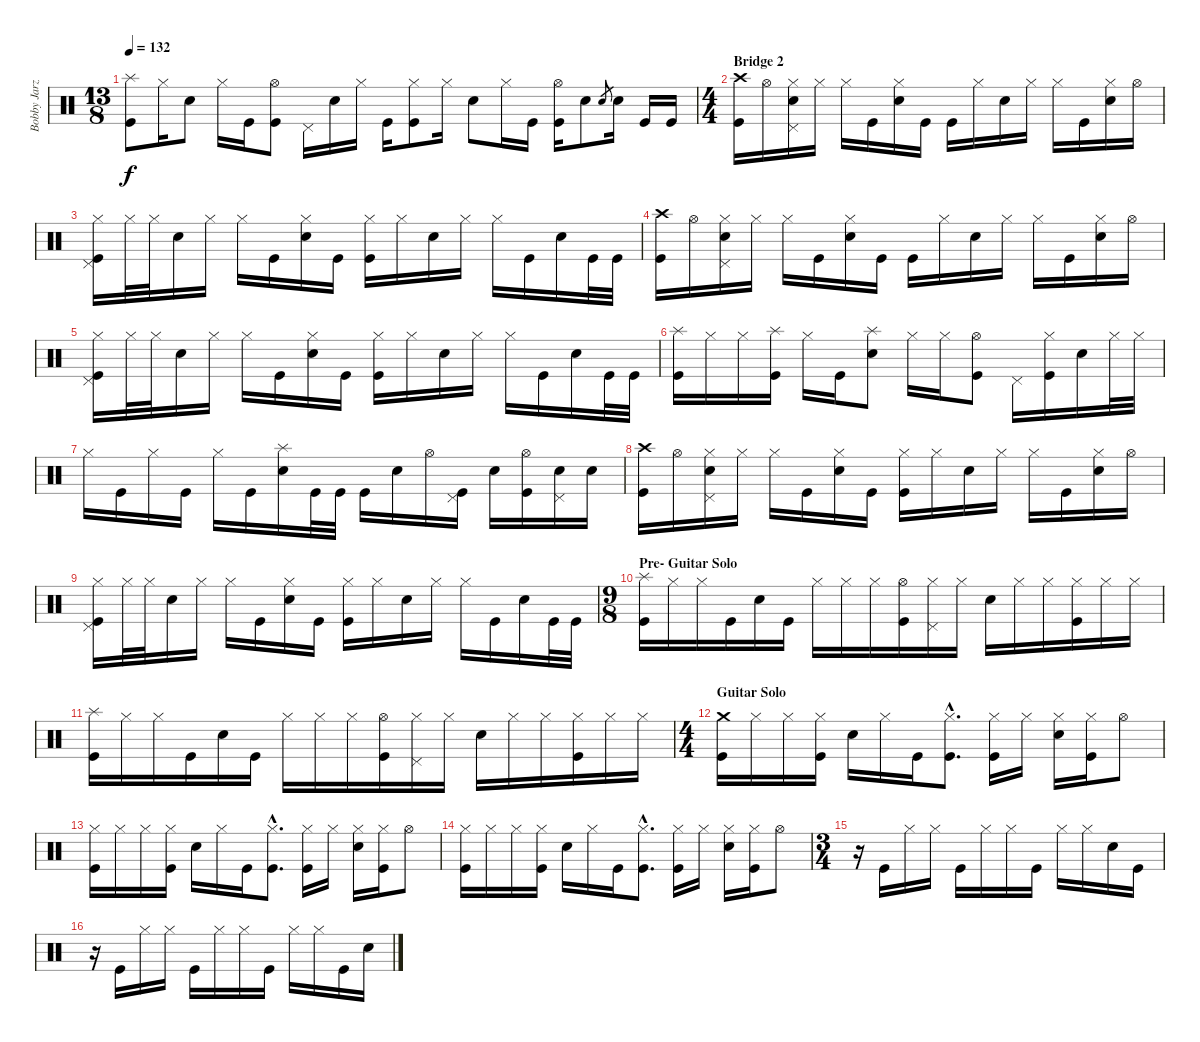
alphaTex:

\track ("Bobby Jarzombek" "Bobby Jarz") {instrument percussion}
\staff {score}
\articulation defaults
\ts (13 8)
\tempo 132
\clef neutral
\ks c
("Splash (hit)" "Kick (hit)").8{dy f} "Hi-Hat (closed)".16 "Electric Snare (hit)".8 "Hi-Hat (closed)".16 "Kick (hit)".16 ("Hi-Hat (open)" "Kick (hit)").8 "Pedal Hi-Hat (hit)".16 "Electric Snare (hit)".16 "Hi-Hat (closed)".16 "Kick (hit)".16 ("Hi-Hat (closed)" "Kick (hit)").8 "Hi-Hat (closed)".16 "Electric Snare (hit)".8 "Hi-Hat (closed)".16 "Kick (hit)".16 ("Hi-Hat (open)" "Kick (hit)").16 "Electric Snare (hit)".8 "Electric Snare (hit)".8{gr} "Electric Snare (hit)".16 "Kick (hit)".16 "Kick (hit)".16 |
\ts (4 4)
\section ("" "Bridge 2")
("Crash high (hit)" "Kick (hit)").16 "Hi-Hat (open)".16 ("Hi-Hat (closed)" "Electric Snare (hit)" "Pedal Hi-Hat (hit)").16 "Hi-Hat (closed)".16 "Hi-Hat (closed)".16 "Kick (hit)".16 ("Hi-Hat (closed)" "Electric Snare (hit)").16 "Kick (hit)".16 "Kick (hit)".16 "Hi-Hat (closed)".16 "Electric Snare (hit)".16 "Hi-Hat (closed)".16 "Hi-Hat (closed)".16 "Kick (hit)".16 ("Hi-Hat (closed)" "Electric Snare (hit)").16 "Hi-Hat (open)".16 |
("Hi-Hat (closed)" "Kick (hit)" "Pedal Hi-Hat (hit)").16 "Hi-Hat (closed)".32 "Hi-Hat (closed)".32 "Electric Snare (hit)".16 "Hi-Hat (closed)".16 "Hi-Hat (closed)".16 "Kick (hit)".16 ("Hi-Hat (closed)" "Electric Snare (hit)").16 "Kick (hit)".16 ("Hi-Hat (closed)" "Kick (hit)").16 "Hi-Hat (closed)".16 "Electric Snare (hit)".16 "Hi-Hat (closed)".16 "Hi-Hat (closed)".16 "Kick (hit)".16 "Electric Snare (hit)".16 "Kick (hit)".32 "Kick (hit)".32 |
("Crash high (hit)" "Kick (hit)").16 "Hi-Hat (open)".16 ("Hi-Hat (closed)" "Electric Snare (hit)" "Pedal Hi-Hat (hit)").16 "Hi-Hat (closed)".16 "Hi-Hat (closed)".16 "Kick (hit)".16 ("Hi-Hat (closed)" "Electric Snare (hit)").16 "Kick (hit)".16 "Kick (hit)".16 "Hi-Hat (closed)".16 "Electric Snare (hit)".16 "Hi-Hat (closed)".16 "Hi-Hat (closed)".16 "Kick (hit)".16 ("Hi-Hat (closed)" "Electric Snare (hit)").16 "Hi-Hat (open)".16 |
("Hi-Hat (closed)" "Kick (hit)" "Pedal Hi-Hat (hit)").16 "Hi-Hat (closed)".32 "Hi-Hat (closed)".32 "Electric Snare (hit)".16 "Hi-Hat (closed)".16 "Hi-Hat (closed)".16 "Kick (hit)".16 ("Hi-Hat (closed)" "Electric Snare (hit)").16 "Kick (hit)".16 ("Hi-Hat (closed)" "Kick (hit)").16 "Hi-Hat (closed)".16 "Electric Snare (hit)".16 "Hi-Hat (closed)".16 "Hi-Hat (closed)".16 "Kick (hit)".16 "Electric Snare (hit)".16 "Kick (hit)".32 "Kick (hit)".32 |
("Splash (hit)" "Kick (hit)").16 "Hi-Hat (closed)".16 "Hi-Hat (closed)".16 ("Splash (hit)" "Kick (hit)").16 "Hi-Hat (closed)".16 "Kick (hit)".16 ("Splash (hit)" "Electric Snare (hit)").8 "Hi-Hat (closed)".16 "Hi-Hat (closed)".16 ("Hi-Hat (open)" "Kick (hit)").8 "Pedal Hi-Hat (hit)".16 ("Hi-Hat (closed)" "Kick (hit)").16 "Electric Snare (hit)".16 "Hi-Hat (closed)".32 "Hi-Hat (closed)".32 |
"Hi-Hat (closed)".16 "Kick (hit)".16 "Hi-Hat (closed)".16 "Kick (hit)".16 "Hi-Hat (closed)".16 "Kick (hit)".16 ("Splash (hit)" "Electric Snare (hit)").16 "Kick (hit)".32 "Kick (hit)".32 "Kick (hit)".16 "Electric Snare (hit)".16 "Hi-Hat (open)".16 ("Pedal Hi-Hat (hit)" "Kick (hit)").16 "Electric Snare (hit)".16 ("Hi-Hat (open)" "Kick (hit)").16 ("Electric Snare (hit)" "Pedal Hi-Hat (hit)").16 "Electric Snare (hit)".16 |
("Crash high (hit)" "Kick (hit)").16 "Hi-Hat (open)".16 ("Hi-Hat (closed)" "Electric Snare (hit)" "Pedal Hi-Hat (hit)").16 "Hi-Hat (closed)".16 "Hi-Hat (closed)".16 "Kick (hit)".16 ("Hi-Hat (closed)" "Electric Snare (hit)").16 "Kick (hit)".16 ("Hi-Hat (closed)" "Kick (hit)").16 "Hi-Hat (closed)".16 "Electric Snare (hit)".16 "Hi-Hat (closed)".16 "Hi-Hat (closed)".16 "Kick (hit)".16 ("Hi-Hat (closed)" "Electric Snare (hit)").16 "Hi-Hat (open)".16 |
("Hi-Hat (closed)" "Kick (hit)" "Pedal Hi-Hat (hit)").16 "Hi-Hat (closed)".32 "Hi-Hat (closed)".32 "Electric Snare (hit)".16 "Hi-Hat (closed)".16 "Hi-Hat (closed)".16 "Kick (hit)".16 ("Hi-Hat (closed)" "Electric Snare (hit)").16 "Kick (hit)".16 ("Hi-Hat (closed)" "Kick (hit)").16 "Hi-Hat (closed)".16 "Electric Snare (hit)".16 "Hi-Hat (closed)".16 "Hi-Hat (closed)".16 "Kick (hit)".16 "Electric Snare (hit)".16 "Kick (hit)".32 "Kick (hit)".32 |
\ts (9 8)
\section ("" "Pre- Guitar Solo")
("Splash (hit)" "Kick (hit)").16 "Hi-Hat (closed)".16 "Hi-Hat (closed)".16 "Kick (hit)".16 "Electric Snare (hit)".16 "Kick (hit)".16 "Hi-Hat (closed)".16 "Hi-Hat (closed)".16 "Hi-Hat (closed)".16 ("Hi-Hat (open)" "Kick (hit)").16 ("Hi-Hat (closed)" "Pedal Hi-Hat (hit)").16 "Hi-Hat (closed)".16 "Electric Snare (hit)".16 "Hi-Hat (closed)".16 "Hi-Hat (closed)".16 ("Hi-Hat (closed)" "Kick (hit)").16 "Hi-Hat (closed)".16 "Hi-Hat (closed)".16 |
("Splash (hit)" "Kick (hit)").16 "Hi-Hat (closed)".16 "Hi-Hat (closed)".16 "Kick (hit)".16 "Electric Snare (hit)".16 "Kick (hit)".16 "Hi-Hat (closed)".16 "Hi-Hat (closed)".16 "Hi-Hat (closed)".16 ("Hi-Hat (open)" "Kick (hit)").16 ("Hi-Hat (closed)" "Pedal Hi-Hat (hit)").16 "Hi-Hat (closed)".16 "Electric Snare (hit)".16 "Hi-Hat (closed)".16 "Hi-Hat (closed)".16 ("Hi-Hat (closed)" "Kick (hit)").16 "Hi-Hat (closed)".16 "Hi-Hat (closed)".16 |
\ts (4 4)
\section ("" "Guitar Solo")
("Crash medium (hit)" "Kick (hit)").16 "Hi-Hat (closed)".16 "Hi-Hat (closed)".16 ("Hi-Hat (closed)" "Kick (hit)").16 "Electric Snare (hit)".16 "Hi-Hat (closed)".16 "Kick (hit)".16 ("Hi-Hat (closed)"{hac} "Kick (hit)"{hac}).8{d} ("Hi-Hat (closed)" "Kick (hit)").16 "Hi-Hat (closed)".16 ("Hi-Hat (closed)" "Electric Snare (hit)").16 ("Hi-Hat (closed)" "Kick (hit)").16 "Hi-Hat (open)".8 |
("Hi-Hat (closed)" "Kick (hit)").16 "Hi-Hat (closed)".16 "Hi-Hat (closed)".16 ("Hi-Hat (closed)" "Kick (hit)").16 "Electric Snare (hit)".16 "Hi-Hat (closed)".16 "Kick (hit)".16 ("Hi-Hat (closed)"{hac} "Kick (hit)"{hac}).8{d} ("Hi-Hat (closed)" "Kick (hit)").16 "Hi-Hat (closed)".16 ("Hi-Hat (closed)" "Electric Snare (hit)").16 ("Hi-Hat (closed)" "Kick (hit)").16 "Hi-Hat (open)".8 |
("Hi-Hat (closed)" "Kick (hit)").16 "Hi-Hat (closed)".16 "Hi-Hat (closed)".16 ("Hi-Hat (closed)" "Kick (hit)").16 "Electric Snare (hit)".16 "Hi-Hat (closed)".16 "Kick (hit)".16 ("Hi-Hat (closed)"{hac} "Kick (hit)"{hac}).8{d} ("Hi-Hat (closed)" "Kick (hit)").16 "Hi-Hat (closed)".16 ("Hi-Hat (closed)" "Electric Snare (hit)").16 ("Hi-Hat (closed)" "Kick (hit)").16 "Hi-Hat (open)".8 |
\ts (3 4)
r.16 "Kick (hit)".16 "Hi-Hat (closed)".16 "Hi-Hat (closed)".16 "Kick (hit)".16 "Hi-Hat (closed)".16 "Hi-Hat (closed)".16 "Kick (hit)".16 "Hi-Hat (closed)".16 "Hi-Hat (closed)".16 "Electric Snare (hit)".16 "Kick (hit)".16 |
r.16 "Kick (hit)".16 "Hi-Hat (closed)".16 "Hi-Hat (closed)".16 "Kick (hit)".16 "Hi-Hat (closed)".16 "Hi-Hat (closed)".16 "Kick (hit)".16 "Hi-Hat (closed)".16 "Hi-Hat (closed)".16 "Kick (hit)".16 "Electric Snare (hit)".16
